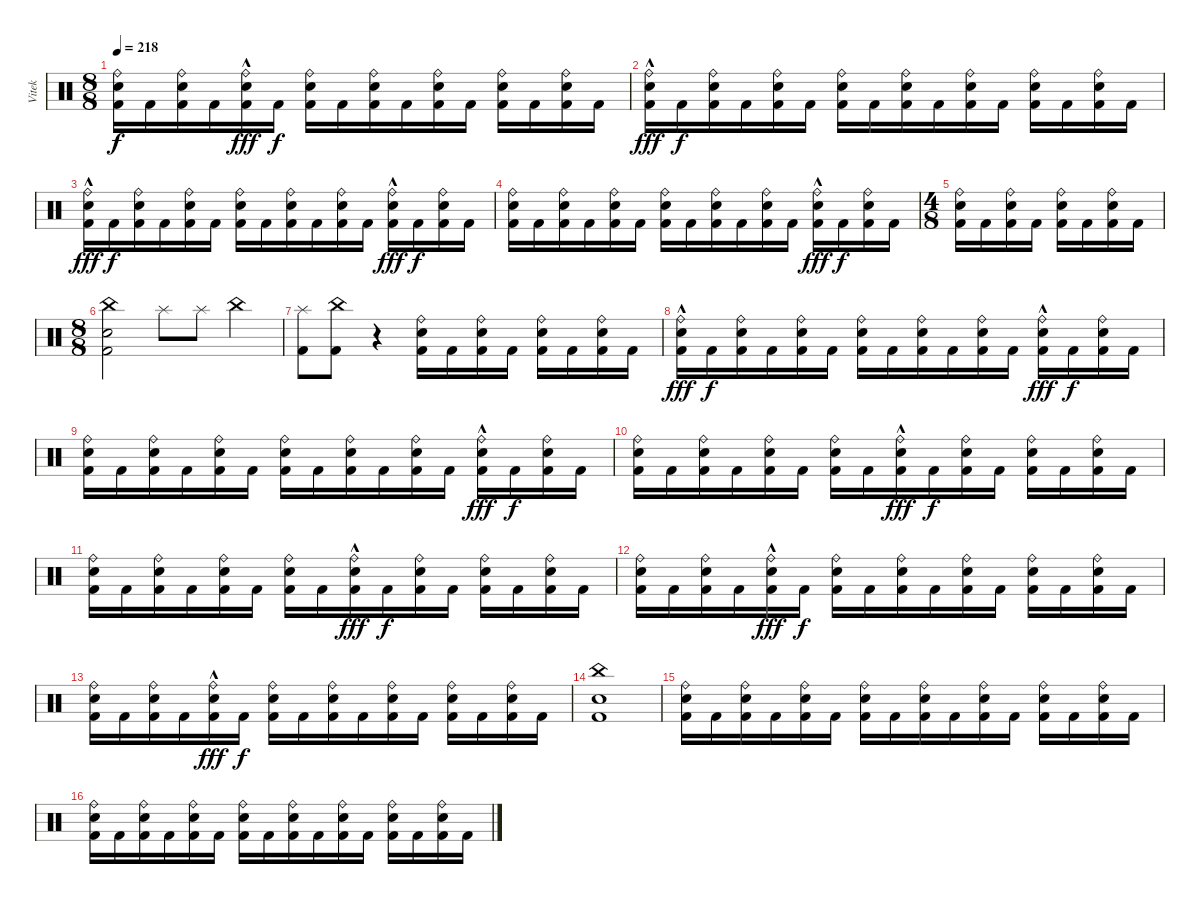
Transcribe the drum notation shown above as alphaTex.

\track ("Vitek" "Vitek") {instrument percussion}
\staff {score}
\articulation defaults
\ts (8 8)
\tempo 218
\clef neutral
\ks c
("Ride (bell)" "Electric Snare (hit)" "Kick (hit) 2").16{dy f} "Kick (hit) 2".16 ("Ride (bell)" "Electric Snare (hit)" "Kick (hit) 2").16 "Kick (hit) 2".16 ("Ride (bell)"{hac} "Electric Snare (hit)" "Kick (hit) 2").16{dy fff} "Kick (hit) 2".16{dy f} ("Ride (bell)" "Electric Snare (hit)" "Kick (hit) 2").16 "Kick (hit) 2".16 ("Ride (bell)" "Electric Snare (hit)" "Kick (hit) 2").16 "Kick (hit) 2".16 ("Ride (bell)" "Electric Snare (hit)" "Kick (hit) 2").16 "Kick (hit) 2".16 ("Ride (bell)" "Electric Snare (hit)" "Kick (hit) 2").16 "Kick (hit) 2".16 ("Ride (bell)" "Electric Snare (hit)" "Kick (hit) 2").16 "Kick (hit) 2".16 |
("Ride (bell)"{hac} "Electric Snare (hit)" "Kick (hit) 2").16{dy fff} "Kick (hit) 2".16{dy f} ("Ride (bell)" "Electric Snare (hit)" "Kick (hit) 2").16 "Kick (hit) 2".16 ("Ride (bell)" "Electric Snare (hit)" "Kick (hit) 2").16 "Kick (hit) 2".16 ("Ride (bell)" "Electric Snare (hit)" "Kick (hit) 2").16 "Kick (hit) 2".16 ("Ride (bell)" "Electric Snare (hit)" "Kick (hit) 2").16 "Kick (hit) 2".16 ("Ride (bell)" "Electric Snare (hit)" "Kick (hit) 2").16 "Kick (hit) 2".16 ("Ride (bell)" "Electric Snare (hit)" "Kick (hit) 2").16 "Kick (hit) 2".16 ("Ride (bell)" "Electric Snare (hit)" "Kick (hit) 2").16 "Kick (hit) 2".16 |
("Ride (bell)"{hac} "Electric Snare (hit)" "Kick (hit) 2").16{dy fff} "Kick (hit) 2".16{dy f} ("Ride (bell)" "Electric Snare (hit)" "Kick (hit) 2").16 "Kick (hit) 2".16 ("Ride (bell)" "Electric Snare (hit)" "Kick (hit) 2").16 "Kick (hit) 2".16 ("Ride (bell)" "Electric Snare (hit)" "Kick (hit) 2").16 "Kick (hit) 2".16 ("Ride (bell)" "Electric Snare (hit)" "Kick (hit) 2").16 "Kick (hit) 2".16 ("Ride (bell)" "Electric Snare (hit)" "Kick (hit) 2").16 "Kick (hit) 2".16 ("Ride (bell)"{hac} "Electric Snare (hit)" "Kick (hit) 2").16{dy fff} "Kick (hit) 2".16{dy f} ("Ride (bell)" "Electric Snare (hit)" "Kick (hit) 2").16 "Kick (hit) 2".16 |
("Ride (bell)" "Electric Snare (hit)" "Kick (hit) 2").16 "Kick (hit) 2".16 ("Ride (bell)" "Electric Snare (hit)" "Kick (hit) 2").16 "Kick (hit) 2".16 ("Ride (bell)" "Electric Snare (hit)" "Kick (hit) 2").16 "Kick (hit) 2".16 ("Ride (bell)" "Electric Snare (hit)" "Kick (hit) 2").16 "Kick (hit) 2".16 ("Ride (bell)" "Electric Snare (hit)" "Kick (hit) 2").16 "Kick (hit) 2".16 ("Ride (bell)" "Electric Snare (hit)" "Kick (hit) 2").16 "Kick (hit) 2".16 ("Ride (bell)"{hac} "Electric Snare (hit)" "Kick (hit) 2").16{dy fff} "Kick (hit) 2".16{dy f} ("Ride (bell)" "Electric Snare (hit)" "Kick (hit) 2").16 "Kick (hit) 2".16 |
\ts (4 8)
("Ride (bell)" "Electric Snare (hit)" "Kick (hit) 2").16 "Kick (hit) 2".16 ("Ride (bell)" "Electric Snare (hit)" "Kick (hit) 2").16 "Kick (hit) 2".16 ("Ride (bell)" "Electric Snare (hit)" "Kick (hit) 2").16 "Kick (hit) 2".16 ("Ride (bell)" "Electric Snare (hit)" "Kick (hit) 2").16 "Kick (hit) 2".16 |
\ts (8 8)
("China (hit)" "Electric Snare (hit)" "Kick (hit) 2").2 "Splash (hit)".8 "Splash (hit)".8 "China (hit)".4 |
("Splash (hit)" "Kick (hit) 2").8 ("China (hit)" "Kick (hit) 2").8 r.4 ("Ride (bell)" "Electric Snare (hit)" "Kick (hit) 2").16 "Kick (hit) 2".16 ("Ride (bell)" "Electric Snare (hit)" "Kick (hit) 2").16 "Kick (hit) 2".16 ("Ride (bell)" "Electric Snare (hit)" "Kick (hit) 2").16 "Kick (hit) 2".16 ("Ride (bell)" "Electric Snare (hit)" "Kick (hit) 2").16 "Kick (hit) 2".16 |
("Ride (bell)"{hac} "Electric Snare (hit)" "Kick (hit) 2").16{dy fff} "Kick (hit) 2".16{dy f} ("Ride (bell)" "Electric Snare (hit)" "Kick (hit) 2").16 "Kick (hit) 2".16 ("Ride (bell)" "Electric Snare (hit)" "Kick (hit) 2").16 "Kick (hit) 2".16 ("Ride (bell)" "Electric Snare (hit)" "Kick (hit) 2").16 "Kick (hit) 2".16 ("Ride (bell)" "Electric Snare (hit)" "Kick (hit) 2").16 "Kick (hit) 2".16 ("Ride (bell)" "Electric Snare (hit)" "Kick (hit) 2").16 "Kick (hit) 2".16 ("Ride (bell)"{hac} "Electric Snare (hit)" "Kick (hit) 2").16{dy fff} "Kick (hit) 2".16{dy f} ("Ride (bell)" "Electric Snare (hit)" "Kick (hit) 2").16 "Kick (hit) 2".16 |
("Ride (bell)" "Electric Snare (hit)" "Kick (hit) 2").16 "Kick (hit) 2".16 ("Ride (bell)" "Electric Snare (hit)" "Kick (hit) 2").16 "Kick (hit) 2".16 ("Ride (bell)" "Electric Snare (hit)" "Kick (hit) 2").16 "Kick (hit) 2".16 ("Ride (bell)" "Electric Snare (hit)" "Kick (hit) 2").16 "Kick (hit) 2".16 ("Ride (bell)" "Electric Snare (hit)" "Kick (hit) 2").16 "Kick (hit) 2".16 ("Ride (bell)" "Electric Snare (hit)" "Kick (hit) 2").16 "Kick (hit) 2".16 ("Ride (bell)"{hac} "Electric Snare (hit)" "Kick (hit) 2").16{dy fff} "Kick (hit) 2".16{dy f} ("Ride (bell)" "Electric Snare (hit)" "Kick (hit) 2").16 "Kick (hit) 2".16 |
("Ride (bell)" "Electric Snare (hit)" "Kick (hit) 2").16 "Kick (hit) 2".16 ("Ride (bell)" "Electric Snare (hit)" "Kick (hit) 2").16 "Kick (hit) 2".16 ("Ride (bell)" "Electric Snare (hit)" "Kick (hit) 2").16 "Kick (hit) 2".16 ("Ride (bell)" "Electric Snare (hit)" "Kick (hit) 2").16 "Kick (hit) 2".16 ("Ride (bell)"{hac} "Electric Snare (hit)" "Kick (hit) 2").16{dy fff} "Kick (hit) 2".16{dy f} ("Ride (bell)" "Electric Snare (hit)" "Kick (hit) 2").16 "Kick (hit) 2".16 ("Ride (bell)" "Electric Snare (hit)" "Kick (hit) 2").16 "Kick (hit) 2".16 ("Ride (bell)" "Electric Snare (hit)" "Kick (hit) 2").16 "Kick (hit) 2".16 |
("Ride (bell)" "Electric Snare (hit)" "Kick (hit) 2").16 "Kick (hit) 2".16 ("Ride (bell)" "Electric Snare (hit)" "Kick (hit) 2").16 "Kick (hit) 2".16 ("Ride (bell)" "Electric Snare (hit)" "Kick (hit) 2").16 "Kick (hit) 2".16 ("Ride (bell)" "Electric Snare (hit)" "Kick (hit) 2").16 "Kick (hit) 2".16 ("Ride (bell)"{hac} "Electric Snare (hit)" "Kick (hit) 2").16{dy fff} "Kick (hit) 2".16{dy f} ("Ride (bell)" "Electric Snare (hit)" "Kick (hit) 2").16 "Kick (hit) 2".16 ("Ride (bell)" "Electric Snare (hit)" "Kick (hit) 2").16 "Kick (hit) 2".16 ("Ride (bell)" "Electric Snare (hit)" "Kick (hit) 2").16 "Kick (hit) 2".16 |
("Ride (bell)" "Electric Snare (hit)" "Kick (hit) 2").16 "Kick (hit) 2".16 ("Ride (bell)" "Electric Snare (hit)" "Kick (hit) 2").16 "Kick (hit) 2".16 ("Ride (bell)"{hac} "Electric Snare (hit)" "Kick (hit) 2").16{dy fff} "Kick (hit) 2".16{dy f} ("Ride (bell)" "Electric Snare (hit)" "Kick (hit) 2").16 "Kick (hit) 2".16 ("Ride (bell)" "Electric Snare (hit)" "Kick (hit) 2").16 "Kick (hit) 2".16 ("Ride (bell)" "Electric Snare (hit)" "Kick (hit) 2").16 "Kick (hit) 2".16 ("Ride (bell)" "Electric Snare (hit)" "Kick (hit) 2").16 "Kick (hit) 2".16 ("Ride (bell)" "Electric Snare (hit)" "Kick (hit) 2").16 "Kick (hit) 2".16 |
("Ride (bell)" "Electric Snare (hit)" "Kick (hit) 2").16 "Kick (hit) 2".16 ("Ride (bell)" "Electric Snare (hit)" "Kick (hit) 2").16 "Kick (hit) 2".16 ("Ride (bell)"{hac} "Electric Snare (hit)" "Kick (hit) 2").16{dy fff} "Kick (hit) 2".16{dy f} ("Ride (bell)" "Electric Snare (hit)" "Kick (hit) 2").16 "Kick (hit) 2".16 ("Ride (bell)" "Electric Snare (hit)" "Kick (hit) 2").16 "Kick (hit) 2".16 ("Ride (bell)" "Electric Snare (hit)" "Kick (hit) 2").16 "Kick (hit) 2".16 ("Ride (bell)" "Electric Snare (hit)" "Kick (hit) 2").16 "Kick (hit) 2".16 ("Ride (bell)" "Electric Snare (hit)" "Kick (hit) 2").16 "Kick (hit) 2".16 |
("China (hit)" "Electric Snare (hit)" "Kick (hit) 2").1 |
("Ride (bell)" "Electric Snare (hit)" "Kick (hit) 2").16 "Kick (hit) 2".16 ("Ride (bell)" "Electric Snare (hit)" "Kick (hit) 2").16 "Kick (hit) 2".16 ("Ride (bell)" "Electric Snare (hit)" "Kick (hit) 2").16 "Kick (hit) 2".16 ("Ride (bell)" "Electric Snare (hit)" "Kick (hit) 2").16 "Kick (hit) 2".16 ("Ride (bell)" "Electric Snare (hit)" "Kick (hit) 2").16 "Kick (hit) 2".16 ("Ride (bell)" "Electric Snare (hit)" "Kick (hit) 2").16 "Kick (hit) 2".16 ("Ride (bell)" "Electric Snare (hit)" "Kick (hit) 2").16 "Kick (hit) 2".16 ("Ride (bell)" "Electric Snare (hit)" "Kick (hit) 2").16 "Kick (hit) 2".16 |
("Ride (bell)" "Electric Snare (hit)" "Kick (hit) 2").16 "Kick (hit) 2".16 ("Ride (bell)" "Electric Snare (hit)" "Kick (hit) 2").16 "Kick (hit) 2".16 ("Ride (bell)" "Electric Snare (hit)" "Kick (hit) 2").16 "Kick (hit) 2".16 ("Ride (bell)" "Electric Snare (hit)" "Kick (hit) 2").16 "Kick (hit) 2".16 ("Ride (bell)" "Electric Snare (hit)" "Kick (hit) 2").16 "Kick (hit) 2".16 ("Ride (bell)" "Electric Snare (hit)" "Kick (hit) 2").16 "Kick (hit) 2".16 ("Ride (bell)" "Electric Snare (hit)" "Kick (hit) 2").16 "Kick (hit) 2".16 ("Ride (bell)" "Electric Snare (hit)" "Kick (hit) 2").16 "Kick (hit) 2".16
